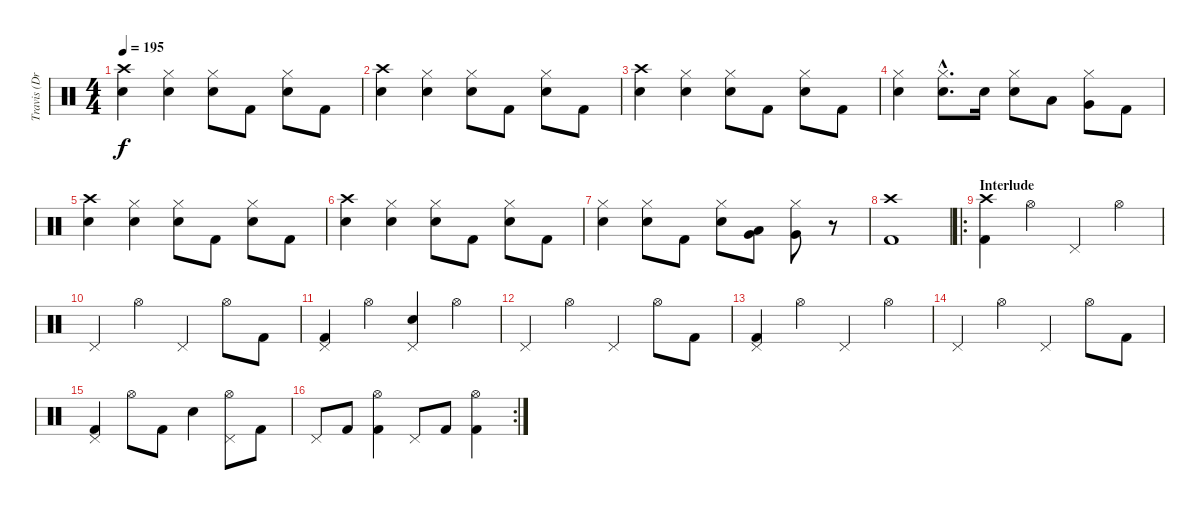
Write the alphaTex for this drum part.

\track ("Travis (Drums)" "Travis (Dr") {instrument percussion}
\staff {score}
\articulation defaults
\ts (4 4)
\tempo 195
\clef neutral
\ks c
("Crash high (hit)" "Electric Snare (hit)").4{dy f} ("Hi-Hat (closed)" "Electric Snare (hit)").4 ("Hi-Hat (closed)" "Electric Snare (hit)").8 "Kick (hit) 2".8 ("Hi-Hat (closed)" "Electric Snare (hit)").8 "Kick (hit) 2".8 |
("Crash high (hit)" "Electric Snare (hit)").4 ("Hi-Hat (closed)" "Electric Snare (hit)").4 ("Hi-Hat (closed)" "Electric Snare (hit)").8 "Kick (hit) 2".8 ("Hi-Hat (closed)" "Electric Snare (hit)").8 "Kick (hit) 2".8 |
("Crash high (hit)" "Electric Snare (hit)").4 ("Hi-Hat (closed)" "Electric Snare (hit)").4 ("Hi-Hat (closed)" "Electric Snare (hit)").8 "Kick (hit) 2".8 ("Hi-Hat (closed)" "Electric Snare (hit)").8 "Kick (hit) 2".8 |
("Hi-Hat (closed)" "Electric Snare (hit)").4 ("Hi-Hat (closed)"{hac} "Electric Snare (hit)"{hac}).8{d} "Electric Snare (hit)".16 ("Hi-Hat (closed)" "Electric Snare (hit)").8 "Low Tom (hit)".8 ("Very Low Tom (hit)" "Hi-Hat (closed)").8 "Kick (hit) 2".8 |
("Crash high (hit)" "Electric Snare (hit)").4 ("Hi-Hat (closed)" "Electric Snare (hit)").4 ("Hi-Hat (closed)" "Electric Snare (hit)").8 "Kick (hit) 2".8 ("Hi-Hat (closed)" "Electric Snare (hit)").8 "Kick (hit) 2".8 |
("Crash high (hit)" "Electric Snare (hit)").4 ("Hi-Hat (closed)" "Electric Snare (hit)").4 ("Hi-Hat (closed)" "Electric Snare (hit)").8 "Kick (hit) 2".8 ("Hi-Hat (closed)" "Electric Snare (hit)").8 "Kick (hit) 2".8 |
("Hi-Hat (closed)" "Electric Snare (hit)").4 ("Hi-Hat (closed)" "Electric Snare (hit)").8 "Kick (hit) 2".8 ("Hi-Hat (closed)" "Electric Snare (hit)").8 ("Low Tom (hit)" "Very Low Tom (hit)").8 ("Very Low Tom (hit)" "Hi-Hat (closed)").8 r.8 |
("Crash high (hit)" "Kick (hit) 2").1 |
\ro
\section ("" "Interlude")
("Crash high (hit)" "Kick (hit) 2").4 "Hi-Hat (open)".4 "Pedal Hi-Hat (hit)".4 "Hi-Hat (open)".4 |
"Pedal Hi-Hat (hit)".4 "Hi-Hat (open)".4 "Pedal Hi-Hat (hit)".4 "Hi-Hat (open)".8 "Kick (hit) 2".8 |
("Pedal Hi-Hat (hit)" "Kick (hit) 2").4 "Hi-Hat (open)".4 ("Pedal Hi-Hat (hit)" "Electric Snare (hit)").4 "Hi-Hat (open)".4 |
"Pedal Hi-Hat (hit)".4 "Hi-Hat (open)".4 "Pedal Hi-Hat (hit)".4 "Hi-Hat (open)".8 "Kick (hit) 2".8 |
("Pedal Hi-Hat (hit)" "Kick (hit) 2").4 "Hi-Hat (open)".4 "Pedal Hi-Hat (hit)".4 "Hi-Hat (open)".4 |
"Pedal Hi-Hat (hit)".4 "Hi-Hat (open)".4 "Pedal Hi-Hat (hit)".4 "Hi-Hat (open)".8 "Kick (hit) 2".8 |
("Pedal Hi-Hat (hit)" "Kick (hit) 2").4 "Hi-Hat (open)".8 "Kick (hit) 2".8 "Electric Snare (hit)".4 ("Pedal Hi-Hat (hit)" "Hi-Hat (open)").8 "Kick (hit) 2".8 |
\rc 2 "Pedal Hi-Hat (hit)".8 "Kick (hit) 2".8
("Hi-Hat (open)" "Kick (hit) 2").4 "Pedal Hi-Hat (hit)".8 "Kick (hit) 2".8 ("Hi-Hat (open)" "Kick (hit) 2").4
